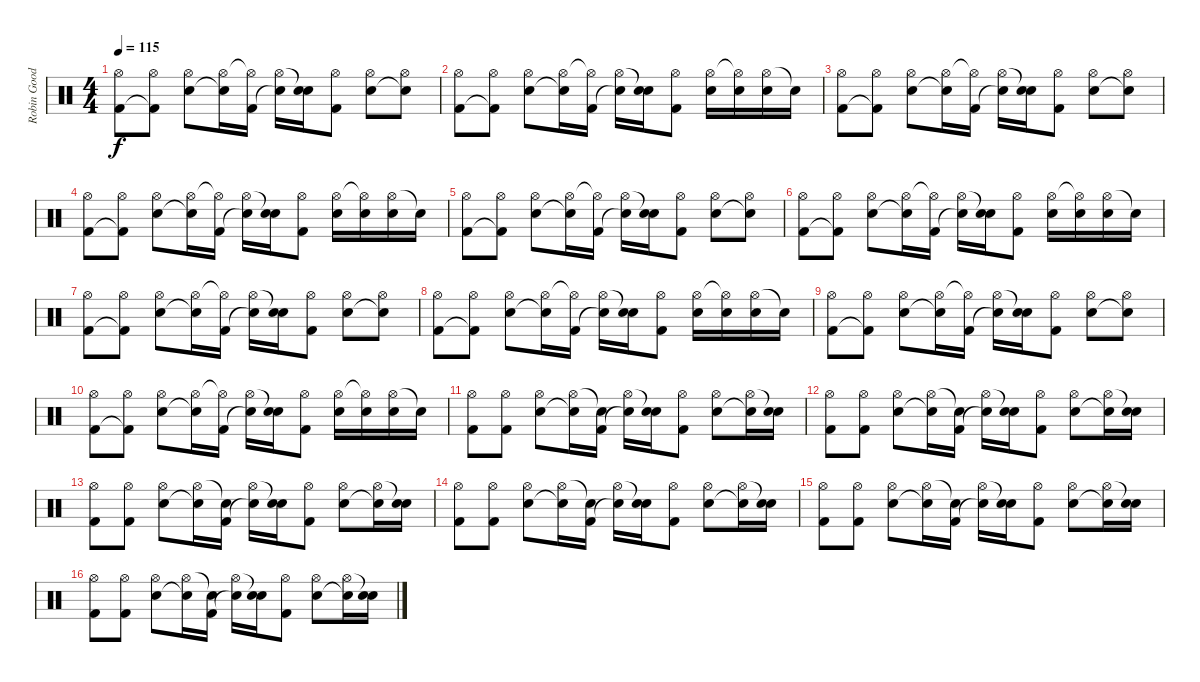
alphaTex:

\track ("Robin Goodridge" "Robin Good") {instrument percussion}
\staff {score}
\articulation defaults
\ts (4 4)
\tempo 115
\clef neutral
\ks c
("Hi-Hat (open)" "Kick (hit) 2").8{dy f} ("Hi-Hat (open)" "Kick (hit) 2"{t}).8 ("Hi-Hat (open)" "Snare (hit) 2").8 ("Hi-Hat (open)" "Snare (hit)"{t}).16 ("Hi-Hat (open)"{t} "Kick (hit) 2").16 ("Hi-Hat (open)" "Snare (hit)"{t}).16 ("Snare (hit)"{t} "Snare (hit) 2").16 ("Hi-Hat (open)" "Kick (hit) 2").8 ("Hi-Hat (open)" "Snare (hit) 2").8 ("Hi-Hat (open)" "Snare (hit) 2"{t}).8 |
("Hi-Hat (open)" "Kick (hit) 2").8 ("Hi-Hat (open)" "Kick (hit) 2"{t}).8 ("Hi-Hat (open)" "Snare (hit) 2").8 ("Hi-Hat (open)" "Snare (hit)"{t}).16 ("Hi-Hat (open)"{t} "Kick (hit) 2").16 ("Hi-Hat (open)" "Snare (hit)"{t}).16 ("Snare (hit)"{t} "Snare (hit) 2").16 ("Hi-Hat (open)" "Kick (hit) 2").8 ("Hi-Hat (open)" "Snare (hit) 2").16 ("Hi-Hat (open)"{t} "Snare (hit) 2").16 ("Hi-Hat (open)" "Snare (hit) 2").16 "Snare (hit)"{t}.16 |
("Hi-Hat (open)" "Kick (hit) 2").8 ("Hi-Hat (open)" "Kick (hit) 2"{t}).8 ("Hi-Hat (open)" "Snare (hit) 2").8 ("Hi-Hat (open)" "Snare (hit)"{t}).16 ("Hi-Hat (open)"{t} "Kick (hit) 2").16 ("Hi-Hat (open)" "Snare (hit)"{t}).16 ("Snare (hit)"{t} "Snare (hit) 2").16 ("Hi-Hat (open)" "Kick (hit) 2").8 ("Hi-Hat (open)" "Snare (hit) 2").8 ("Hi-Hat (open)" "Snare (hit) 2"{t}).8 |
("Hi-Hat (open)" "Kick (hit) 2").8 ("Hi-Hat (open)" "Kick (hit) 2"{t}).8 ("Hi-Hat (open)" "Snare (hit) 2").8 ("Hi-Hat (open)" "Snare (hit)"{t}).16 ("Hi-Hat (open)"{t} "Kick (hit) 2").16 ("Hi-Hat (open)" "Snare (hit)"{t}).16 ("Snare (hit)"{t} "Snare (hit) 2").16 ("Hi-Hat (open)" "Kick (hit) 2").8 ("Hi-Hat (open)" "Snare (hit) 2").16 ("Hi-Hat (open)"{t} "Snare (hit) 2").16 ("Hi-Hat (open)" "Snare (hit) 2").16 "Snare (hit)"{t}.16 |
("Hi-Hat (open)" "Kick (hit) 2").8 ("Hi-Hat (open)" "Kick (hit) 2"{t}).8 ("Hi-Hat (open)" "Snare (hit) 2").8 ("Hi-Hat (open)" "Snare (hit)"{t}).16 ("Hi-Hat (open)"{t} "Kick (hit) 2").16 ("Hi-Hat (open)" "Snare (hit)"{t}).16 ("Snare (hit)"{t} "Snare (hit) 2").16 ("Hi-Hat (open)" "Kick (hit) 2").8 ("Hi-Hat (open)" "Snare (hit) 2").8 ("Hi-Hat (open)" "Snare (hit) 2"{t}).8 |
("Hi-Hat (open)" "Kick (hit) 2").8 ("Hi-Hat (open)" "Kick (hit) 2"{t}).8 ("Hi-Hat (open)" "Snare (hit) 2").8 ("Hi-Hat (open)" "Snare (hit)"{t}).16 ("Hi-Hat (open)"{t} "Kick (hit) 2").16 ("Hi-Hat (open)" "Snare (hit)"{t}).16 ("Snare (hit)"{t} "Snare (hit) 2").16 ("Hi-Hat (open)" "Kick (hit) 2").8 ("Hi-Hat (open)" "Snare (hit) 2").16 ("Hi-Hat (open)"{t} "Snare (hit) 2").16 ("Hi-Hat (open)" "Snare (hit) 2").16 "Snare (hit)"{t}.16 |
("Hi-Hat (open)" "Kick (hit) 2").8 ("Hi-Hat (open)" "Kick (hit) 2"{t}).8 ("Hi-Hat (open)" "Snare (hit) 2").8 ("Hi-Hat (open)" "Snare (hit)"{t}).16 ("Hi-Hat (open)"{t} "Kick (hit) 2").16 ("Hi-Hat (open)" "Snare (hit)"{t}).16 ("Snare (hit)"{t} "Snare (hit) 2").16 ("Hi-Hat (open)" "Kick (hit) 2").8 ("Hi-Hat (open)" "Snare (hit) 2").8 ("Hi-Hat (open)" "Snare (hit) 2"{t}).8 |
("Hi-Hat (open)" "Kick (hit) 2").8 ("Hi-Hat (open)" "Kick (hit) 2"{t}).8 ("Hi-Hat (open)" "Snare (hit) 2").8 ("Hi-Hat (open)" "Snare (hit)"{t}).16 ("Hi-Hat (open)"{t} "Kick (hit) 2").16 ("Hi-Hat (open)" "Snare (hit)"{t}).16 ("Snare (hit)"{t} "Snare (hit) 2").16 ("Hi-Hat (open)" "Kick (hit) 2").8 ("Hi-Hat (open)" "Snare (hit) 2").16 ("Hi-Hat (open)"{t} "Snare (hit) 2").16 ("Hi-Hat (open)" "Snare (hit) 2").16 "Snare (hit)"{t}.16 |
("Hi-Hat (open)" "Kick (hit) 2").8 ("Hi-Hat (open)" "Kick (hit) 2"{t}).8 ("Hi-Hat (open)" "Snare (hit) 2").8 ("Hi-Hat (open)" "Snare (hit)"{t}).16 ("Hi-Hat (open)"{t} "Kick (hit) 2").16 ("Hi-Hat (open)" "Snare (hit)"{t}).16 ("Snare (hit)"{t} "Snare (hit) 2").16 ("Hi-Hat (open)" "Kick (hit) 2").8 ("Hi-Hat (open)" "Snare (hit) 2").8 ("Hi-Hat (open)" "Snare (hit) 2"{t}).8 |
("Hi-Hat (open)" "Kick (hit) 2").8 ("Hi-Hat (open)" "Kick (hit) 2"{t}).8 ("Hi-Hat (open)" "Snare (hit) 2").8 ("Hi-Hat (open)" "Snare (hit)"{t}).16 ("Hi-Hat (open)"{t} "Kick (hit) 2").16 ("Hi-Hat (open)" "Snare (hit)"{t}).16 ("Snare (hit)"{t} "Snare (hit) 2").16 ("Hi-Hat (open)" "Kick (hit) 2").8 ("Hi-Hat (open)" "Snare (hit) 2").16 ("Hi-Hat (open)"{t} "Snare (hit) 2").16 ("Hi-Hat (open)" "Snare (hit) 2").16 "Snare (hit)"{t}.16 |
("Hi-Hat (open)" "Kick (hit) 2").8 ("Hi-Hat (open)" "Kick (hit) 2").8 ("Hi-Hat (open)" "Snare (hit) 2").8 ("Hi-Hat (open)" "Snare (hit)"{t}).16 ("Snare (hit)"{t} "Kick (hit) 2").16 ("Hi-Hat (open)" "Snare (hit)"{t}).16 ("Snare (hit)"{t} "Snare (hit) 2").16 ("Hi-Hat (open)" "Kick (hit) 2").8 ("Hi-Hat (open)" "Snare (hit) 2").8 ("Hi-Hat (open)" "Snare (hit) 2"{t}).16 ("Snare (hit)"{t} "Snare (hit) 2").16 |
("Hi-Hat (open)" "Kick (hit) 2").8 ("Hi-Hat (open)" "Kick (hit) 2").8 ("Hi-Hat (open)" "Snare (hit) 2").8 ("Hi-Hat (open)" "Snare (hit)"{t}).16 ("Snare (hit)"{t} "Kick (hit) 2").16 ("Hi-Hat (open)" "Snare (hit)"{t}).16 ("Snare (hit)"{t} "Snare (hit) 2").16 ("Hi-Hat (open)" "Kick (hit) 2").8 ("Hi-Hat (open)" "Snare (hit) 2").8 ("Hi-Hat (open)" "Snare (hit) 2"{t}).16 ("Snare (hit)"{t} "Snare (hit) 2").16 |
("Hi-Hat (open)" "Kick (hit) 2").8 ("Hi-Hat (open)" "Kick (hit) 2").8 ("Hi-Hat (open)" "Snare (hit) 2").8 ("Hi-Hat (open)" "Snare (hit)"{t}).16 ("Snare (hit)"{t} "Kick (hit) 2").16 ("Hi-Hat (open)" "Snare (hit)"{t}).16 ("Snare (hit)"{t} "Snare (hit) 2").16 ("Hi-Hat (open)" "Kick (hit) 2").8 ("Hi-Hat (open)" "Snare (hit) 2").8 ("Hi-Hat (open)" "Snare (hit) 2"{t}).16 ("Snare (hit)"{t} "Snare (hit) 2").16 |
("Hi-Hat (open)" "Kick (hit) 2").8 ("Hi-Hat (open)" "Kick (hit) 2").8 ("Hi-Hat (open)" "Snare (hit) 2").8 ("Hi-Hat (open)" "Snare (hit)"{t}).16 ("Snare (hit)"{t} "Kick (hit) 2").16 ("Hi-Hat (open)" "Snare (hit)"{t}).16 ("Snare (hit)"{t} "Snare (hit) 2").16 ("Hi-Hat (open)" "Kick (hit) 2").8 ("Hi-Hat (open)" "Snare (hit) 2").8 ("Hi-Hat (open)" "Snare (hit) 2"{t}).16 ("Snare (hit)"{t} "Snare (hit) 2").16 |
("Hi-Hat (open)" "Kick (hit) 2").8 ("Hi-Hat (open)" "Kick (hit) 2").8 ("Hi-Hat (open)" "Snare (hit) 2").8 ("Hi-Hat (open)" "Snare (hit)"{t}).16 ("Snare (hit)"{t} "Kick (hit) 2").16 ("Hi-Hat (open)" "Snare (hit)"{t}).16 ("Snare (hit)"{t} "Snare (hit) 2").16 ("Hi-Hat (open)" "Kick (hit) 2").8 ("Hi-Hat (open)" "Snare (hit) 2").8 ("Hi-Hat (open)" "Snare (hit) 2"{t}).16 ("Snare (hit)"{t} "Snare (hit) 2").16 |
("Hi-Hat (open)" "Kick (hit) 2").8 ("Hi-Hat (open)" "Kick (hit) 2").8 ("Hi-Hat (open)" "Snare (hit) 2").8 ("Hi-Hat (open)" "Snare (hit)"{t}).16 ("Snare (hit)"{t} "Kick (hit) 2").16 ("Hi-Hat (open)" "Snare (hit)"{t}).16 ("Snare (hit)"{t} "Snare (hit) 2").16 ("Hi-Hat (open)" "Kick (hit) 2").8 ("Hi-Hat (open)" "Snare (hit) 2").8 ("Hi-Hat (open)" "Snare (hit) 2"{t}).16 ("Snare (hit)"{t} "Snare (hit) 2").16
